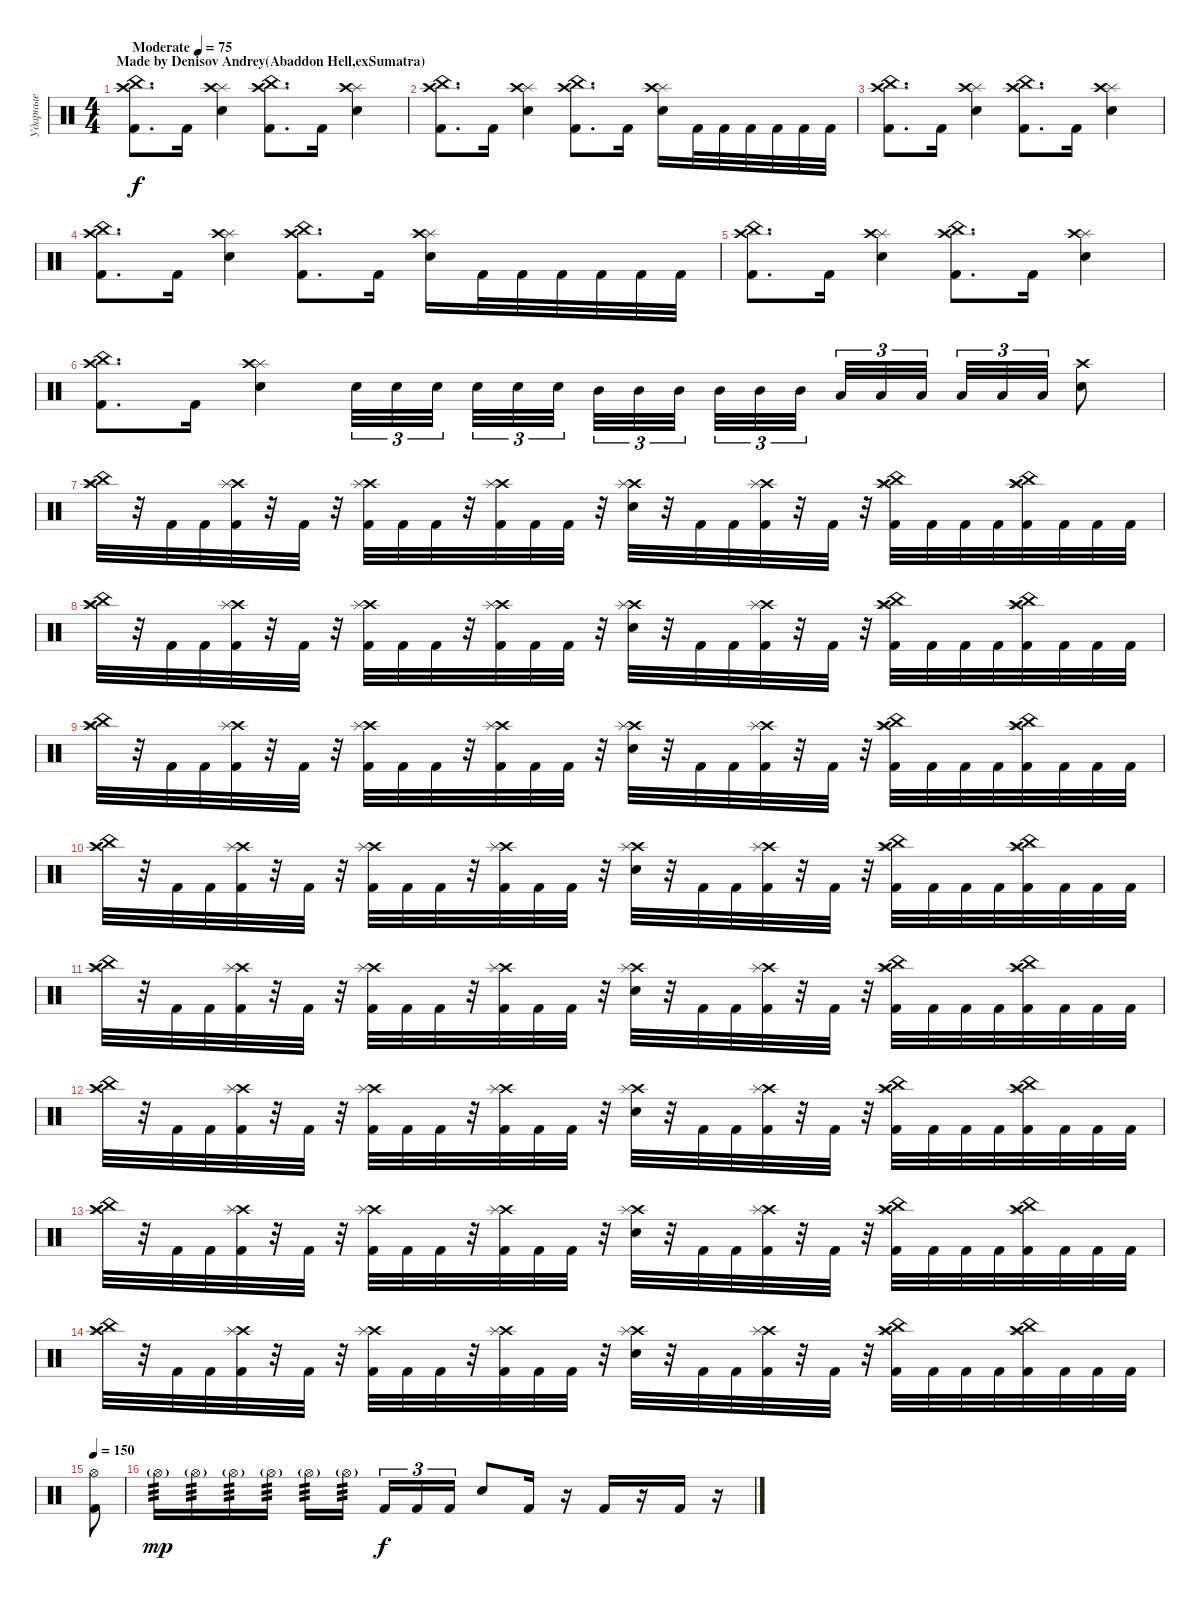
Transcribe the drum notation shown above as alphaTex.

\track ("Ударные" "Ударные") {instrument percussion}
\staff {score}
\articulation defaults
\ts (4 4)
\section ("" "Made by Denisov Andrey(Abaddon Hell,exSumatra)")
\tempo (75 "Moderate")
\clef neutral
\ks c
("Crash high (hit)" "China (hit)" "Kick (hit) 2").8{d dy f} "Kick (hit) 2".16 ("Splash (hit)" "Crash high (hit)" "Electric Snare (hit)").4 ("China (hit)" "Crash high (hit)" "Kick (hit) 2").8{d} "Kick (hit) 2".16 ("Splash (hit)" "Crash high (hit)" "Electric Snare (hit)").4 |
("Crash high (hit)" "China (hit)" "Kick (hit) 2").8{d} "Kick (hit) 2".16 ("Splash (hit)" "Crash high (hit)" "Electric Snare (hit)").4 ("China (hit)" "Crash high (hit)" "Kick (hit) 2").8{d} "Kick (hit) 2".16 ("Splash (hit)" "Crash high (hit)" "Electric Snare (hit)").16 "Kick (hit) 2".32 "Kick (hit) 2".32 "Kick (hit) 2".32 "Kick (hit) 2".32 "Kick (hit) 2".32 "Kick (hit) 2".32 |
("Crash high (hit)" "China (hit)" "Kick (hit) 2").8{d} "Kick (hit) 2".16 ("Splash (hit)" "Crash high (hit)" "Electric Snare (hit)").4 ("China (hit)" "Crash high (hit)" "Kick (hit) 2").8{d} "Kick (hit) 2".16 ("Splash (hit)" "Crash high (hit)" "Electric Snare (hit)").4 |
("Crash high (hit)" "China (hit)" "Kick (hit) 2").8{d} "Kick (hit) 2".16 ("Splash (hit)" "Crash high (hit)" "Electric Snare (hit)").4 ("China (hit)" "Crash high (hit)" "Kick (hit) 2").8{d} "Kick (hit) 2".16 ("Splash (hit)" "Crash high (hit)" "Electric Snare (hit)").16 "Kick (hit) 2".32 "Kick (hit) 2".32 "Kick (hit) 2".32 "Kick (hit) 2".32 "Kick (hit) 2".32 "Kick (hit) 2".32 |
("Crash high (hit)" "China (hit)" "Kick (hit) 2").8{d} "Kick (hit) 2".16 ("Splash (hit)" "Crash high (hit)" "Electric Snare (hit)").4 ("China (hit)" "Crash high (hit)" "Kick (hit) 2").8{d} "Kick (hit) 2".16 ("Splash (hit)" "Crash high (hit)" "Electric Snare (hit)").4 |
("China (hit)" "Crash high (hit)" "Kick (hit) 2").8{d} "Kick (hit) 2".16 ("Splash (hit)" "Crash high (hit)" "Electric Snare (hit)").4 "Electric Snare (hit)".32{tu (3 2)} "Electric Snare (hit)".32{tu (3 2)} "Electric Snare (hit)".32{tu (3 2) beam splitsecondary} "Electric Snare (hit)".32{tu (3 2)} "Electric Snare (hit)".32{tu (3 2)} "Electric Snare (hit)".32{tu (3 2) beam splitsecondary} "Mid Tom (hit)".32{tu (3 2)} "Mid Tom (hit)".32{tu (3 2)} "Mid Tom (hit)".32{tu (3 2) beam splitsecondary} "Mid Tom (hit)".32{tu (3 2)} "Mid Tom (hit)".32{tu (3 2)} "Mid Tom (hit)".32{tu (3 2)} "Low Tom (hit)".32{tu (3 2)} "Low Tom (hit)".32{tu (3 2)} "Low Tom (hit)".32{tu (3 2) beam splitsecondary} "Low Tom (hit)".32{tu (3 2)} "Low Tom (hit)".32{tu (3 2)} "Low Tom (hit)".32{tu (3 2)} ("Crash high (hit)" "Electric Snare (hit)").8 |
("Crash high (hit)" "Splash (hit)" "China (hit)").32 r.32 "Kick (hit) 2".32 "Kick (hit) 2".32 ("Crash high (hit)" "Splash (hit)" "Kick (hit) 2").32 r.32 "Kick (hit) 2".32 r.32 ("Crash high (hit)" "Splash (hit)" "Kick (hit) 2").32 "Kick (hit) 2".32 "Kick (hit) 2".32 r.32 ("Crash high (hit)" "Splash (hit)" "Kick (hit) 2").32 "Kick (hit) 2".32 "Kick (hit) 2".32 r.32 ("Crash high (hit)" "Splash (hit)" "Electric Snare (hit)").32 r.32 "Kick (hit) 2".32 "Kick (hit) 2".32 ("Crash high (hit)" "Splash (hit)" "Kick (hit) 2").32 r.32 "Kick (hit) 2".32 r.32 ("Crash high (hit)" "Splash (hit)" "China (hit)" "Kick (hit) 2").32 "Kick (hit) 2".32 "Kick (hit) 2".32 "Kick (hit) 2".32 ("Crash high (hit)" "Splash (hit)" "China (hit)" "Kick (hit) 2").32 "Kick (hit) 2".32 "Kick (hit) 2".32 "Kick (hit) 2".32 |
("Crash high (hit)" "Splash (hit)" "China (hit)").32 r.32 "Kick (hit) 2".32 "Kick (hit) 2".32 ("Crash high (hit)" "Splash (hit)" "Kick (hit) 2").32 r.32 "Kick (hit) 2".32 r.32 ("Crash high (hit)" "Splash (hit)" "Kick (hit) 2").32 "Kick (hit) 2".32 "Kick (hit) 2".32 r.32 ("Crash high (hit)" "Splash (hit)" "Kick (hit) 2").32 "Kick (hit) 2".32 "Kick (hit) 2".32 r.32 ("Crash high (hit)" "Splash (hit)" "Electric Snare (hit)").32 r.32 "Kick (hit) 2".32 "Kick (hit) 2".32 ("Crash high (hit)" "Splash (hit)" "Kick (hit) 2").32 r.32 "Kick (hit) 2".32 r.32 ("Crash high (hit)" "Splash (hit)" "China (hit)" "Kick (hit) 2").32 "Kick (hit) 2".32 "Kick (hit) 2".32 "Kick (hit) 2".32 ("Crash high (hit)" "Splash (hit)" "China (hit)" "Kick (hit) 2").32 "Kick (hit) 2".32 "Kick (hit) 2".32 "Kick (hit) 2".32 |
("Crash high (hit)" "Splash (hit)" "China (hit)").32 r.32 "Kick (hit) 2".32 "Kick (hit) 2".32 ("Crash high (hit)" "Splash (hit)" "Kick (hit) 2").32 r.32 "Kick (hit) 2".32 r.32 ("Crash high (hit)" "Splash (hit)" "Kick (hit) 2").32 "Kick (hit) 2".32 "Kick (hit) 2".32 r.32 ("Crash high (hit)" "Splash (hit)" "Kick (hit) 2").32 "Kick (hit) 2".32 "Kick (hit) 2".32 r.32 ("Crash high (hit)" "Splash (hit)" "Electric Snare (hit)").32 r.32 "Kick (hit) 2".32 "Kick (hit) 2".32 ("Crash high (hit)" "Splash (hit)" "Kick (hit) 2").32 r.32 "Kick (hit) 2".32 r.32 ("Crash high (hit)" "Splash (hit)" "China (hit)" "Kick (hit) 2").32 "Kick (hit) 2".32 "Kick (hit) 2".32 "Kick (hit) 2".32 ("Crash high (hit)" "Splash (hit)" "China (hit)" "Kick (hit) 2").32 "Kick (hit) 2".32 "Kick (hit) 2".32 "Kick (hit) 2".32 |
("Crash high (hit)" "Splash (hit)" "China (hit)").32 r.32 "Kick (hit) 2".32 "Kick (hit) 2".32 ("Crash high (hit)" "Splash (hit)" "Kick (hit) 2").32 r.32 "Kick (hit) 2".32 r.32 ("Crash high (hit)" "Splash (hit)" "Kick (hit) 2").32 "Kick (hit) 2".32 "Kick (hit) 2".32 r.32 ("Crash high (hit)" "Splash (hit)" "Kick (hit) 2").32 "Kick (hit) 2".32 "Kick (hit) 2".32 r.32 ("Crash high (hit)" "Splash (hit)" "Electric Snare (hit)").32 r.32 "Kick (hit) 2".32 "Kick (hit) 2".32 ("Crash high (hit)" "Splash (hit)" "Kick (hit) 2").32 r.32 "Kick (hit) 2".32 r.32 ("Crash high (hit)" "Splash (hit)" "China (hit)" "Kick (hit) 2").32 "Kick (hit) 2".32 "Kick (hit) 2".32 "Kick (hit) 2".32 ("Crash high (hit)" "Splash (hit)" "China (hit)" "Kick (hit) 2").32 "Kick (hit) 2".32 "Kick (hit) 2".32 "Kick (hit) 2".32 |
("Crash high (hit)" "Splash (hit)" "China (hit)").32 r.32 "Kick (hit) 2".32 "Kick (hit) 2".32 ("Crash high (hit)" "Splash (hit)" "Kick (hit) 2").32 r.32 "Kick (hit) 2".32 r.32 ("Crash high (hit)" "Splash (hit)" "Kick (hit) 2").32 "Kick (hit) 2".32 "Kick (hit) 2".32 r.32 ("Crash high (hit)" "Splash (hit)" "Kick (hit) 2").32 "Kick (hit) 2".32 "Kick (hit) 2".32 r.32 ("Crash high (hit)" "Splash (hit)" "Electric Snare (hit)").32 r.32 "Kick (hit) 2".32 "Kick (hit) 2".32 ("Crash high (hit)" "Splash (hit)" "Kick (hit) 2").32 r.32 "Kick (hit) 2".32 r.32 ("Crash high (hit)" "Splash (hit)" "China (hit)" "Kick (hit) 2").32 "Kick (hit) 2".32 "Kick (hit) 2".32 "Kick (hit) 2".32 ("Crash high (hit)" "Splash (hit)" "China (hit)" "Kick (hit) 2").32 "Kick (hit) 2".32 "Kick (hit) 2".32 "Kick (hit) 2".32 |
("Crash high (hit)" "Splash (hit)" "China (hit)").32 r.32 "Kick (hit) 2".32 "Kick (hit) 2".32 ("Crash high (hit)" "Splash (hit)" "Kick (hit) 2").32 r.32 "Kick (hit) 2".32 r.32 ("Crash high (hit)" "Splash (hit)" "Kick (hit) 2").32 "Kick (hit) 2".32 "Kick (hit) 2".32 r.32 ("Crash high (hit)" "Splash (hit)" "Kick (hit) 2").32 "Kick (hit) 2".32 "Kick (hit) 2".32 r.32 ("Crash high (hit)" "Splash (hit)" "Electric Snare (hit)").32 r.32 "Kick (hit) 2".32 "Kick (hit) 2".32 ("Crash high (hit)" "Splash (hit)" "Kick (hit) 2").32 r.32 "Kick (hit) 2".32 r.32 ("Crash high (hit)" "Splash (hit)" "China (hit)" "Kick (hit) 2").32 "Kick (hit) 2".32 "Kick (hit) 2".32 "Kick (hit) 2".32 ("Crash high (hit)" "Splash (hit)" "China (hit)" "Kick (hit) 2").32 "Kick (hit) 2".32 "Kick (hit) 2".32 "Kick (hit) 2".32 |
("Crash high (hit)" "Splash (hit)" "China (hit)").32 r.32 "Kick (hit) 2".32 "Kick (hit) 2".32 ("Crash high (hit)" "Splash (hit)" "Kick (hit) 2").32 r.32 "Kick (hit) 2".32 r.32 ("Crash high (hit)" "Splash (hit)" "Kick (hit) 2").32 "Kick (hit) 2".32 "Kick (hit) 2".32 r.32 ("Crash high (hit)" "Splash (hit)" "Kick (hit) 2").32 "Kick (hit) 2".32 "Kick (hit) 2".32 r.32 ("Crash high (hit)" "Splash (hit)" "Electric Snare (hit)").32 r.32 "Kick (hit) 2".32 "Kick (hit) 2".32 ("Crash high (hit)" "Splash (hit)" "Kick (hit) 2").32 r.32 "Kick (hit) 2".32 r.32 ("Crash high (hit)" "Splash (hit)" "China (hit)" "Kick (hit) 2").32 "Kick (hit) 2".32 "Kick (hit) 2".32 "Kick (hit) 2".32 ("Crash high (hit)" "Splash (hit)" "China (hit)" "Kick (hit) 2").32 "Kick (hit) 2".32 "Kick (hit) 2".32 "Kick (hit) 2".32 |
("Crash high (hit)" "Splash (hit)" "China (hit)").32 r.32 "Kick (hit) 2".32 "Kick (hit) 2".32 ("Crash high (hit)" "Splash (hit)" "Kick (hit) 2").32 r.32 "Kick (hit) 2".32 r.32 ("Crash high (hit)" "Splash (hit)" "Kick (hit) 2").32 "Kick (hit) 2".32 "Kick (hit) 2".32 r.32 ("Crash high (hit)" "Splash (hit)" "Kick (hit) 2").32 "Kick (hit) 2".32 "Kick (hit) 2".32 r.32 ("Crash high (hit)" "Splash (hit)" "Electric Snare (hit)").32 r.32 "Kick (hit) 2".32 "Kick (hit) 2".32 ("Crash high (hit)" "Splash (hit)" "Kick (hit) 2").32 r.32 "Kick (hit) 2".32 r.32 ("Crash high (hit)" "Splash (hit)" "China (hit)" "Kick (hit) 2").32 "Kick (hit) 2".32 "Kick (hit) 2".32 "Kick (hit) 2".32 ("Crash high (hit)" "Splash (hit)" "China (hit)" "Kick (hit) 2").32 "Kick (hit) 2".32 "Kick (hit) 2".32 "Kick (hit) 2".32 |
\tempo 150
("Hi-Hat (open)" "Kick (hit) 2").8 |
"Hi-Hat (open)"{g}.16{tp 3 dy mp} "Hi-Hat (open)"{g}.16{tp 3} "Hi-Hat (open)"{g}.16{tp 3} "Hi-Hat (open)"{g}.16{tp 3} "Hi-Hat (open)"{g}.16{tp 3} "Hi-Hat (open)"{g}.16{tp 3 beam splitsecondary} "Kick (hit) 2".16{tu (3 2) dy f} "Kick (hit) 2".16{tu (3 2)} "Kick (hit) 2".16{tu (3 2)} "Electric Snare (hit)".8 "Kick (hit) 2".16 r.16 "Kick (hit) 2".16 r.16 "Kick (hit) 2".16 r.16
